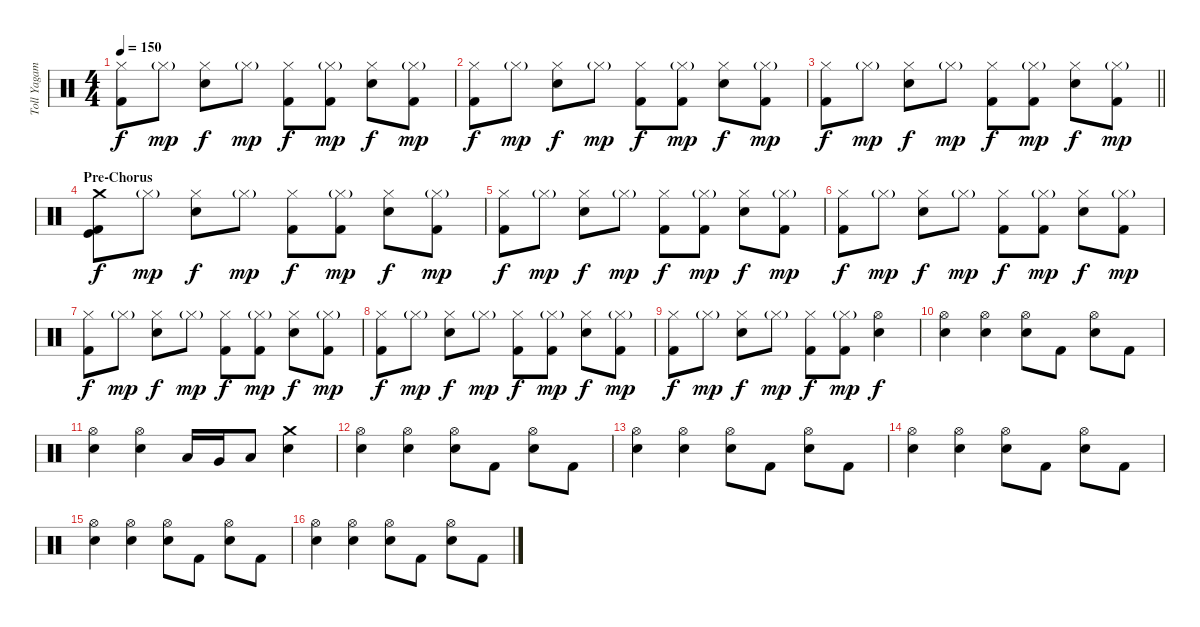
\track ("Toll Yagami" "Toll Yagam") {instrument percussion}
\staff {score}
\articulation defaults
\ts (4 4)
\tempo 150
\clef neutral
\ks c
("Hi-Hat (closed)" "Kick (hit) 2").8{dy f} "Hi-Hat (closed)"{g}.8{dy mp} ("Hi-Hat (closed)" "Electric Snare (hit)").8{dy f} "Hi-Hat (closed)"{g}.8{dy mp} ("Hi-Hat (closed)" "Kick (hit) 2").8{dy f} ("Hi-Hat (closed)"{g} "Kick (hit) 2").8{dy mp} ("Hi-Hat (closed)" "Electric Snare (hit)").8{dy f} ("Hi-Hat (closed)"{g} "Kick (hit) 2").8{dy mp} |
("Hi-Hat (closed)" "Kick (hit) 2").8{dy f} "Hi-Hat (closed)"{g}.8{dy mp} ("Hi-Hat (closed)" "Electric Snare (hit)").8{dy f} "Hi-Hat (closed)"{g}.8{dy mp} ("Hi-Hat (closed)" "Kick (hit) 2").8{dy f} ("Hi-Hat (closed)"{g} "Kick (hit) 2").8{dy mp} ("Hi-Hat (closed)" "Electric Snare (hit)").8{dy f} ("Hi-Hat (closed)"{g} "Kick (hit) 2").8{dy mp} |
\barLineRight lightlight
("Hi-Hat (closed)" "Kick (hit) 2").8{dy f} "Hi-Hat (closed)"{g}.8{dy mp} ("Hi-Hat (closed)" "Electric Snare (hit)").8{dy f} "Hi-Hat (closed)"{g}.8{dy mp} ("Hi-Hat (closed)" "Kick (hit) 2").8{dy f} ("Hi-Hat (closed)"{g} "Kick (hit) 2").8{dy mp} ("Hi-Hat (closed)" "Electric Snare (hit)").8{dy f} ("Hi-Hat (closed)"{g} "Kick (hit) 2").8{dy mp} |
\section ("" "Pre-Chorus")
("Crash medium (hit)" "Kick (hit) 2" "Kick (hit)").8{dy f} "Hi-Hat (closed)"{g}.8{dy mp} ("Hi-Hat (closed)" "Electric Snare (hit)").8{dy f} "Hi-Hat (closed)"{g}.8{dy mp} ("Hi-Hat (closed)" "Kick (hit) 2").8{dy f} ("Hi-Hat (closed)"{g} "Kick (hit) 2").8{dy mp} ("Hi-Hat (closed)" "Electric Snare (hit)").8{dy f} ("Hi-Hat (closed)"{g} "Kick (hit) 2").8{dy mp} |
("Hi-Hat (closed)" "Kick (hit) 2").8{dy f} "Hi-Hat (closed)"{g}.8{dy mp} ("Hi-Hat (closed)" "Electric Snare (hit)").8{dy f} "Hi-Hat (closed)"{g}.8{dy mp} ("Hi-Hat (closed)" "Kick (hit) 2").8{dy f} ("Hi-Hat (closed)"{g} "Kick (hit) 2").8{dy mp} ("Hi-Hat (closed)" "Electric Snare (hit)").8{dy f} ("Hi-Hat (closed)"{g} "Kick (hit) 2").8{dy mp} |
("Hi-Hat (closed)" "Kick (hit) 2").8{dy f} "Hi-Hat (closed)"{g}.8{dy mp} ("Hi-Hat (closed)" "Electric Snare (hit)").8{dy f} "Hi-Hat (closed)"{g}.8{dy mp} ("Hi-Hat (closed)" "Kick (hit) 2").8{dy f} ("Hi-Hat (closed)"{g} "Kick (hit) 2").8{dy mp} ("Hi-Hat (closed)" "Electric Snare (hit)").8{dy f} ("Hi-Hat (closed)"{g} "Kick (hit) 2").8{dy mp} |
("Hi-Hat (closed)" "Kick (hit) 2").8{dy f} "Hi-Hat (closed)"{g}.8{dy mp} ("Hi-Hat (closed)" "Electric Snare (hit)").8{dy f} "Hi-Hat (closed)"{g}.8{dy mp} ("Hi-Hat (closed)" "Kick (hit) 2").8{dy f} ("Hi-Hat (closed)"{g} "Kick (hit) 2").8{dy mp} ("Hi-Hat (closed)" "Electric Snare (hit)").8{dy f} ("Hi-Hat (closed)"{g} "Kick (hit) 2").8{dy mp} |
("Hi-Hat (closed)" "Kick (hit) 2").8{dy f} "Hi-Hat (closed)"{g}.8{dy mp} ("Hi-Hat (closed)" "Electric Snare (hit)").8{dy f} "Hi-Hat (closed)"{g}.8{dy mp} ("Hi-Hat (closed)" "Kick (hit) 2").8{dy f} ("Hi-Hat (closed)"{g} "Kick (hit) 2").8{dy mp} ("Hi-Hat (closed)" "Electric Snare (hit)").8{dy f} ("Hi-Hat (closed)"{g} "Kick (hit) 2").8{dy mp} |
("Hi-Hat (closed)" "Kick (hit) 2").8{dy f} "Hi-Hat (closed)"{g}.8{dy mp} ("Hi-Hat (closed)" "Electric Snare (hit)").8{dy f} "Hi-Hat (closed)"{g}.8{dy mp} ("Hi-Hat (closed)" "Kick (hit) 2").8{dy f} ("Hi-Hat (closed)"{g} "Kick (hit) 2").8{dy mp} ("Hi-Hat (open)" "Electric Snare (hit)").4{dy f} |
("Hi-Hat (open)" "Electric Snare (hit)").4 ("Hi-Hat (open)" "Electric Snare (hit)").4 ("Hi-Hat (open)" "Electric Snare (hit)").8 "Kick (hit) 2".8 ("Hi-Hat (open)" "Electric Snare (hit)").8 "Kick (hit) 2".8 |
("Hi-Hat (open)" "Electric Snare (hit)").4 ("Hi-Hat (open)" "Electric Snare (hit)").4 "Low Tom (hit)".16 "Very Low Tom (hit)".16 "Low Floor Tom (hit)".8 ("Crash medium (hit)" "Electric Snare (hit)").4 |
("Hi-Hat (open)" "Electric Snare (hit)").4 ("Hi-Hat (open)" "Electric Snare (hit)").4 ("Hi-Hat (open)" "Electric Snare (hit)").8 "Kick (hit) 2".8 ("Hi-Hat (open)" "Electric Snare (hit)").8 "Kick (hit) 2".8 |
("Hi-Hat (open)" "Electric Snare (hit)").4 ("Hi-Hat (open)" "Electric Snare (hit)").4 ("Hi-Hat (open)" "Electric Snare (hit)").8 "Kick (hit) 2".8 ("Hi-Hat (open)" "Electric Snare (hit)").8 "Kick (hit) 2".8 |
("Hi-Hat (open)" "Electric Snare (hit)").4 ("Hi-Hat (open)" "Electric Snare (hit)").4 ("Hi-Hat (open)" "Electric Snare (hit)").8 "Kick (hit) 2".8 ("Hi-Hat (open)" "Electric Snare (hit)").8 "Kick (hit) 2".8 |
("Hi-Hat (open)" "Electric Snare (hit)").4 ("Hi-Hat (open)" "Electric Snare (hit)").4 ("Hi-Hat (open)" "Electric Snare (hit)").8 "Kick (hit) 2".8 ("Hi-Hat (open)" "Electric Snare (hit)").8 "Kick (hit) 2".8 |
("Hi-Hat (open)" "Electric Snare (hit)").4 ("Hi-Hat (open)" "Electric Snare (hit)").4 ("Hi-Hat (open)" "Electric Snare (hit)").8 "Kick (hit) 2".8 ("Hi-Hat (open)" "Electric Snare (hit)").8 "Kick (hit) 2".8
